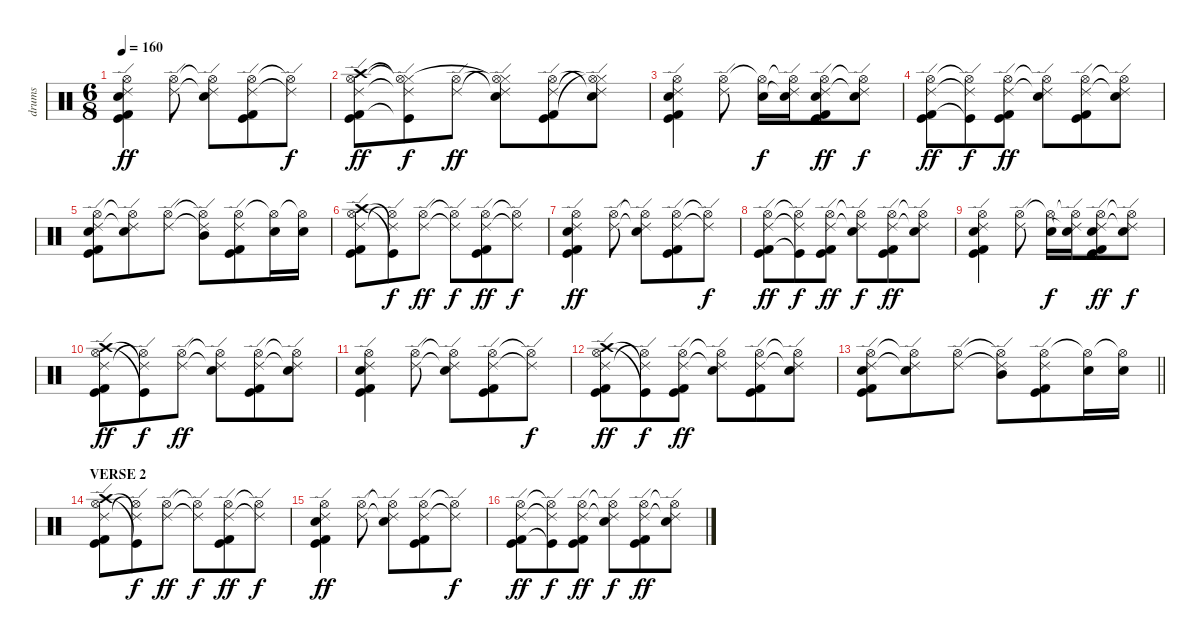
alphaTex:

\track ("drums" "drums") {instrument percussion}
\staff {score}
\articulation defaults
\ts (6 8)
\tempo 160
\clef neutral
\ks c
("Hi-Hat (open)" "Ride (edge) 2" "Snare (hit) 2" "Kick (hit) 2" "Kick (hit)").4{dy ff} ("Hi-Hat (open)" "Ride (edge) 2").8 ("Hi-Hat (open)"{t} "Ride (edge) 2"{t} "Electric Snare (hit)").8 ("Hi-Hat (open)" "Ride (edge) 2" "Kick (hit) 2" "Kick (hit)").8 ("Hi-Hat (open)"{t} "Ride (edge) 2"{t}).8{dy f} |
("Crash high (hit)" "Ride (edge) 2" "Hi-Hat (open)" "Kick (hit) 2" "Kick (hit)").8{dy ff} ("Hi-Hat (closed)"{t} "Ride (edge) 2"{t} "Hi-Hat (open)"{t} "Kick (hit)"{t}).8{dy f} ("Ride (edge) 2" "Hi-Hat (open)").8{dy ff} ("Hi-Hat (closed)"{t} "Ride (edge) 2"{t} "Hi-Hat (open)"{t} "Electric Snare (hit)").8 ("Ride (edge) 2" "Hi-Hat (open)" "Kick (hit) 2" "Kick (hit)").8 ("Hi-Hat (closed)"{t} "Ride (edge) 2"{t} "Hi-Hat (open)"{t} "Electric Snare (hit)").8 |
("Hi-Hat (open)" "Ride (edge) 2" "Snare (hit) 2" "Kick (hit) 2" "Kick (hit)").4 ("Hi-Hat (open)" "Ride (edge) 2").8 ("Hi-Hat (open)"{t} "Electric Snare (hit)").16{dy f} ("Hi-Hat (open)"{t} "Ride (edge) 2"{t} "Electric Snare (hit)").16 ("Hi-Hat (open)" "Ride (edge) 2" "Electric Snare (hit)" "Kick (hit) 2" "Kick (hit)").8{dy ff} ("Hi-Hat (open)"{t} "Ride (edge) 2"{t} "Electric Snare (hit)").8{dy f} |
("Hi-Hat (open)" "Ride (edge) 2" "Kick (hit) 2" "Kick (hit)").8{dy ff} ("Hi-Hat (open)"{t} "Ride (edge) 2"{t} "Kick (hit)"{t}).8{dy f} ("Hi-Hat (open)" "Ride (edge) 2" "Kick (hit) 2" "Kick (hit)").8{dy ff} ("Hi-Hat (open)"{t} "Ride (edge) 2"{t} "Electric Snare (hit)").8 ("Hi-Hat (open)" "Ride (edge) 2" "Kick (hit) 2" "Kick (hit)").8 ("Hi-Hat (open)"{t} "Ride (edge) 2"{t} "Electric Snare (hit)").8 |
("Hi-Hat (open)" "Ride (edge) 2" "Snare (hit) 2" "Kick (hit) 2" "Kick (hit)").8 ("Hi-Hat (open)"{t} "Ride (edge) 2"{t} "Electric Snare (hit)").8 ("Hi-Hat (open)" "Ride (edge) 2").8 ("Hi-Hat (open)"{t} "Ride (edge) 2"{t} "Mid Tom (hit)").8 ("Hi-Hat (open)" "Ride (edge) 2" "Kick (hit) 2" "Kick (hit)").8 ("Hi-Hat (open)"{t} "Electric Snare (hit)").16 ("Hi-Hat (open)"{t} "Electric Snare (hit)").16 |
("Crash high (hit)" "Ride (edge) 2" "Hi-Hat (open)" "Kick (hit) 2" "Kick (hit)").8 ("Ride (edge) 2"{t} "Hi-Hat (open)"{t} "Kick (hit)"{t}).8{dy f} ("Ride (edge) 2" "Hi-Hat (open)").8{dy ff} ("Ride (edge) 2"{t} "Hi-Hat (open)"{t}).8{dy f} ("Ride (edge) 2" "Hi-Hat (open)" "Kick (hit) 2" "Kick (hit)").8{dy ff} ("Ride (edge) 2"{t} "Hi-Hat (open)"{t}).8{dy f} |
("Hi-Hat (open)" "Ride (edge) 2" "Snare (hit) 2" "Kick (hit) 2" "Kick (hit)").4{dy ff} ("Hi-Hat (open)" "Ride (edge) 2").8 ("Hi-Hat (open)"{t} "Ride (edge) 2"{t} "Electric Snare (hit)").8 ("Hi-Hat (open)" "Ride (edge) 2" "Kick (hit) 2" "Kick (hit)").8 ("Hi-Hat (open)"{t} "Ride (edge) 2"{t}).8{dy f} |
("Hi-Hat (open)" "Ride (edge) 2" "Kick (hit) 2" "Kick (hit)").8{dy ff} ("Hi-Hat (open)"{t} "Ride (edge) 2"{t} "Kick (hit)"{t}).8{dy f} ("Hi-Hat (open)" "Ride (edge) 2" "Kick (hit) 2" "Kick (hit)").8{dy ff} ("Hi-Hat (open)"{t} "Ride (edge) 2"{t} "Electric Snare (hit)").8{dy f} ("Hi-Hat (open)" "Ride (edge) 2" "Kick (hit) 2" "Kick (hit)").8{dy ff} ("Hi-Hat (open)"{t} "Ride (edge) 2"{t} "Electric Snare (hit)").8 |
("Hi-Hat (open)" "Ride (edge) 2" "Snare (hit) 2" "Kick (hit) 2" "Kick (hit)").4 ("Hi-Hat (open)" "Ride (edge) 2").8 ("Hi-Hat (open)"{t} "Electric Snare (hit)").16{dy f} ("Hi-Hat (open)"{t} "Ride (edge) 2"{t} "Electric Snare (hit)").16 ("Hi-Hat (open)" "Ride (edge) 2" "Electric Snare (hit)" "Kick (hit) 2" "Kick (hit)").8{dy ff} ("Hi-Hat (open)"{t} "Ride (edge) 2"{t} "Electric Snare (hit)").8{dy f} |
("Crash high (hit)" "Ride (edge) 2" "Hi-Hat (open)" "Kick (hit) 2" "Kick (hit)").8{dy ff} ("Ride (edge) 2"{t} "Hi-Hat (open)"{t} "Kick (hit)"{t}).8{dy f} ("Ride (edge) 2" "Hi-Hat (open)").8{dy ff} ("Ride (edge) 2"{t} "Hi-Hat (open)"{t} "Electric Snare (hit)").8 ("Ride (edge) 2" "Hi-Hat (open)" "Kick (hit) 2" "Kick (hit)").8 ("Ride (edge) 2"{t} "Hi-Hat (open)"{t} "Electric Snare (hit)").8 |
("Hi-Hat (open)" "Ride (edge) 2" "Snare (hit) 2" "Kick (hit) 2" "Kick (hit)").4 ("Hi-Hat (open)" "Ride (edge) 2").8 ("Hi-Hat (open)"{t} "Ride (edge) 2"{t} "Electric Snare (hit)").8 ("Hi-Hat (open)" "Ride (edge) 2" "Kick (hit) 2" "Kick (hit)").8 ("Hi-Hat (open)"{t} "Ride (edge) 2"{t}).8{dy f} |
("Crash high (hit)" "Ride (edge) 2" "Hi-Hat (open)" "Kick (hit) 2" "Kick (hit)").8{dy ff} ("Ride (edge) 2"{t} "Hi-Hat (open)"{t} "Kick (hit)"{t}).8{dy f} ("Ride (edge) 2" "Hi-Hat (open)" "Kick (hit) 2" "Kick (hit)").8{dy ff} ("Ride (edge) 2"{t} "Hi-Hat (open)"{t} "Electric Snare (hit)").8 ("Ride (edge) 2" "Hi-Hat (open)" "Kick (hit) 2" "Kick (hit)").8 ("Ride (edge) 2"{t} "Hi-Hat (open)"{t} "Electric Snare (hit)").8 |
\barLineRight lightlight
("Hi-Hat (open)" "Ride (edge) 2" "Snare (hit) 2" "Kick (hit) 2" "Kick (hit)").8 ("Hi-Hat (open)"{t} "Ride (edge) 2"{t} "Electric Snare (hit)").8 ("Hi-Hat (open)" "Ride (edge) 2").8 ("Hi-Hat (open)"{t} "Ride (edge) 2"{t} "Mid Tom (hit)").8 ("Hi-Hat (open)" "Ride (edge) 2" "Kick (hit) 2" "Kick (hit)").8 ("Hi-Hat (open)"{t} "Electric Snare (hit)").16 ("Hi-Hat (open)"{t} "Electric Snare (hit)").16 |
\section ("" "VERSE 2")
("Crash high (hit)" "Ride (edge) 2" "Hi-Hat (open)" "Kick (hit) 2" "Kick (hit)").8 ("Ride (edge) 2"{t} "Hi-Hat (open)"{t} "Kick (hit)"{t}).8{dy f} ("Ride (edge) 2" "Hi-Hat (open)").8{dy ff} ("Ride (edge) 2"{t} "Hi-Hat (open)"{t}).8{dy f} ("Ride (edge) 2" "Hi-Hat (open)" "Kick (hit) 2" "Kick (hit)").8{dy ff} ("Ride (edge) 2"{t} "Hi-Hat (open)"{t}).8{dy f} |
("Hi-Hat (open)" "Ride (edge) 2" "Snare (hit) 2" "Kick (hit) 2" "Kick (hit)").4{dy ff} ("Hi-Hat (open)" "Ride (edge) 2").8 ("Hi-Hat (open)"{t} "Ride (edge) 2"{t} "Electric Snare (hit)").8 ("Hi-Hat (open)" "Ride (edge) 2" "Kick (hit) 2" "Kick (hit)").8 ("Hi-Hat (open)"{t} "Ride (edge) 2"{t}).8{dy f} |
("Hi-Hat (open)" "Ride (edge) 2" "Kick (hit) 2" "Kick (hit)").8{dy ff} ("Hi-Hat (open)"{t} "Ride (edge) 2"{t} "Kick (hit)"{t}).8{dy f} ("Hi-Hat (open)" "Ride (edge) 2" "Kick (hit) 2" "Kick (hit)").8{dy ff} ("Hi-Hat (open)"{t} "Ride (edge) 2"{t} "Electric Snare (hit)").8{dy f} ("Hi-Hat (open)" "Ride (edge) 2" "Kick (hit) 2" "Kick (hit)").8{dy ff} ("Hi-Hat (open)"{t} "Ride (edge) 2"{t} "Electric Snare (hit)").8
